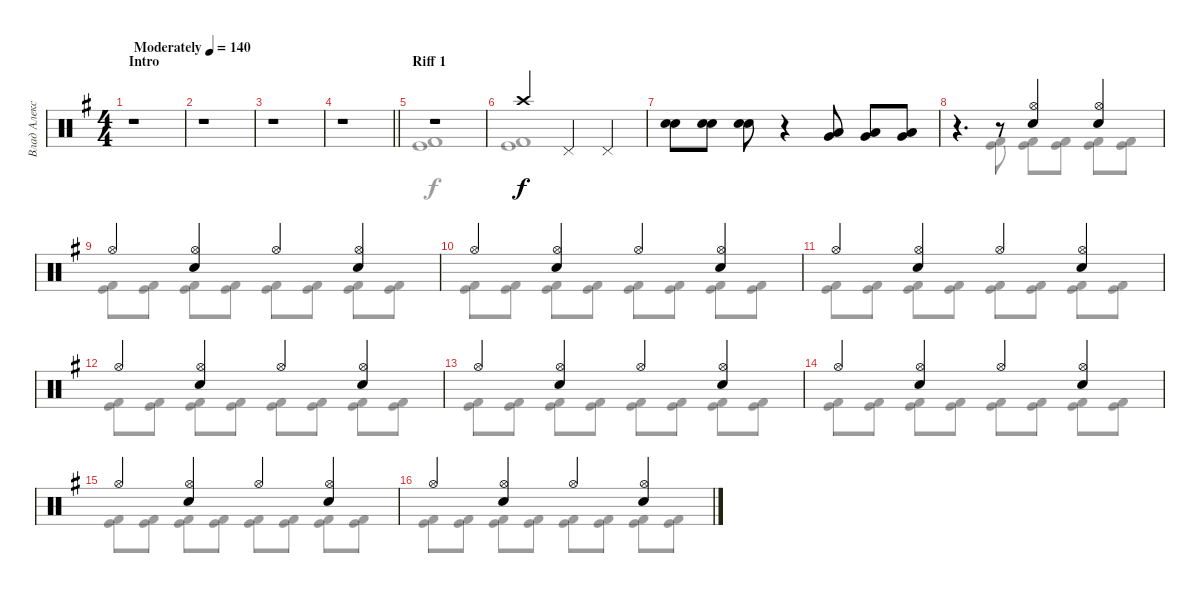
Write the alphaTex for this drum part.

\track ("Влад Алексеенко" "Влад Алекс") {instrument percussion}
\staff {score}
\articulation defaults
\voice
\ts (4 4)
\section ("" "Intro")
\tempo (140 "Moderately")
\clef neutral
\ks g
r.1{dy f} |
r.1 |
r.1 |
\barLineRight lightlight
r.1 |
\section ("" "Riff 1")
r.1 |
"Crash high (hit)".2 "Pedal Hi-Hat (hit)".4 "Pedal Hi-Hat (hit)".4 |
("Electric Snare (hit)" "Electric Snare (hit)").8 ("Electric Snare (hit)" "Electric Snare (hit)").8 ("Electric Snare (hit)" "Electric Snare (hit)").8 r.4 ("Very Low Tom (hit)" "Low Tom (hit)").8 ("Very Low Tom (hit)" "Low Tom (hit)").8 ("Very Low Tom (hit)" "Low Tom (hit)").8 |
r.4{d} r.8 ("Electric Snare (hit)" "Hi-Hat (open)").4 ("Electric Snare (hit)" "Hi-Hat (open)").4 |
"Hi-Hat (open)".4 ("Electric Snare (hit)" "Hi-Hat (open)").4 "Hi-Hat (open)".4 ("Electric Snare (hit)" "Hi-Hat (open)").4 |
"Hi-Hat (open)".4 ("Electric Snare (hit)" "Hi-Hat (open)").4 "Hi-Hat (open)".4 ("Electric Snare (hit)" "Hi-Hat (open)").4 |
"Hi-Hat (open)".4 ("Electric Snare (hit)" "Hi-Hat (open)").4 "Hi-Hat (open)".4 ("Electric Snare (hit)" "Hi-Hat (open)").4 |
"Hi-Hat (open)".4 ("Electric Snare (hit)" "Hi-Hat (open)").4 "Hi-Hat (open)".4 ("Electric Snare (hit)" "Hi-Hat (open)").4 |
"Hi-Hat (open)".4 ("Electric Snare (hit)" "Hi-Hat (open)").4 "Hi-Hat (open)".4 ("Electric Snare (hit)" "Hi-Hat (open)").4 |
"Hi-Hat (open)".4 ("Electric Snare (hit)" "Hi-Hat (open)").4 "Hi-Hat (open)".4 ("Electric Snare (hit)" "Hi-Hat (open)").4 |
"Hi-Hat (open)".4 ("Electric Snare (hit)" "Hi-Hat (open)").4 "Hi-Hat (open)".4 ("Electric Snare (hit)" "Hi-Hat (open)").4 |
"Hi-Hat (open)".4 ("Electric Snare (hit)" "Hi-Hat (open)").4 "Hi-Hat (open)".4 ("Electric Snare (hit)" "Hi-Hat (open)").4
\voice
\clef neutral
\ottava regular
\simile none
\ks g
|
|
|
\barLineRight lightlight
|
("Kick (hit) 2" "Kick (hit)").1 |
("Kick (hit) 2" "Kick (hit)").1 |
|
r.4{d} ("Kick (hit) 2" "Kick (hit)").8 ("Kick (hit) 2" "Kick (hit)").8 ("Kick (hit) 2" "Kick (hit)").8 ("Kick (hit) 2" "Kick (hit)").8 ("Kick (hit) 2" "Kick (hit)").8 |
("Kick (hit) 2" "Kick (hit)").8 ("Kick (hit) 2" "Kick (hit)").8 ("Kick (hit) 2" "Kick (hit)").8 ("Kick (hit) 2" "Kick (hit)").8 ("Kick (hit) 2" "Kick (hit)").8 ("Kick (hit) 2" "Kick (hit)").8 ("Kick (hit) 2" "Kick (hit)").8 ("Kick (hit) 2" "Kick (hit)").8 |
("Kick (hit) 2" "Kick (hit)").8 ("Kick (hit) 2" "Kick (hit)").8 ("Kick (hit) 2" "Kick (hit)").8 ("Kick (hit) 2" "Kick (hit)").8 ("Kick (hit) 2" "Kick (hit)").8 ("Kick (hit) 2" "Kick (hit)").8 ("Kick (hit) 2" "Kick (hit)").8 ("Kick (hit) 2" "Kick (hit)").8 |
("Kick (hit) 2" "Kick (hit)").8 ("Kick (hit) 2" "Kick (hit)").8 ("Kick (hit) 2" "Kick (hit)").8 ("Kick (hit) 2" "Kick (hit)").8 ("Kick (hit) 2" "Kick (hit)").8 ("Kick (hit) 2" "Kick (hit)").8 ("Kick (hit) 2" "Kick (hit)").8 ("Kick (hit) 2" "Kick (hit)").8 |
("Kick (hit) 2" "Kick (hit)").8 ("Kick (hit) 2" "Kick (hit)").8 ("Kick (hit) 2" "Kick (hit)").8 ("Kick (hit) 2" "Kick (hit)").8 ("Kick (hit) 2" "Kick (hit)").8 ("Kick (hit) 2" "Kick (hit)").8 ("Kick (hit) 2" "Kick (hit)").8 ("Kick (hit) 2" "Kick (hit)").8 |
("Kick (hit) 2" "Kick (hit)").8 ("Kick (hit) 2" "Kick (hit)").8 ("Kick (hit) 2" "Kick (hit)").8 ("Kick (hit) 2" "Kick (hit)").8 ("Kick (hit) 2" "Kick (hit)").8 ("Kick (hit) 2" "Kick (hit)").8 ("Kick (hit) 2" "Kick (hit)").8 ("Kick (hit) 2" "Kick (hit)").8 |
("Kick (hit) 2" "Kick (hit)").8 ("Kick (hit) 2" "Kick (hit)").8 ("Kick (hit) 2" "Kick (hit)").8 ("Kick (hit) 2" "Kick (hit)").8 ("Kick (hit) 2" "Kick (hit)").8 ("Kick (hit) 2" "Kick (hit)").8 ("Kick (hit) 2" "Kick (hit)").8 ("Kick (hit) 2" "Kick (hit)").8 |
("Kick (hit) 2" "Kick (hit)").8 ("Kick (hit) 2" "Kick (hit)").8 ("Kick (hit) 2" "Kick (hit)").8 ("Kick (hit) 2" "Kick (hit)").8 ("Kick (hit) 2" "Kick (hit)").8 ("Kick (hit) 2" "Kick (hit)").8 ("Kick (hit) 2" "Kick (hit)").8 ("Kick (hit) 2" "Kick (hit)").8 |
("Kick (hit) 2" "Kick (hit)").8 ("Kick (hit) 2" "Kick (hit)").8 ("Kick (hit) 2" "Kick (hit)").8 ("Kick (hit) 2" "Kick (hit)").8 ("Kick (hit) 2" "Kick (hit)").8 ("Kick (hit) 2" "Kick (hit)").8 ("Kick (hit) 2" "Kick (hit)").8 ("Kick (hit) 2" "Kick (hit)").8
